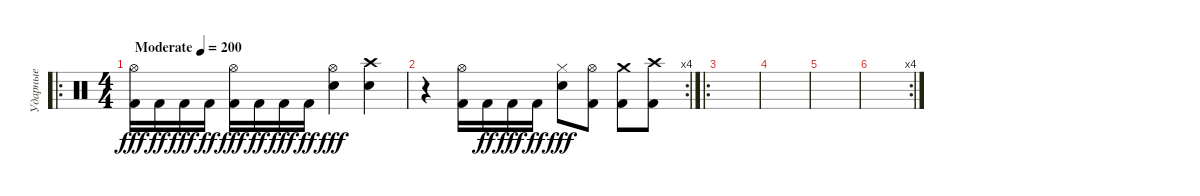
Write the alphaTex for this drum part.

\track ("Ударные" "Ударные") {instrument percussion}
\staff {score}
\articulation defaults
\ro
\ts (4 4)
\tempo (200 "Moderate")
\clef neutral
\ks c
("Hi-Hat (open)" "Kick (hit) 2").16{dy fff} "Kick (hit) 2".16{dy ff} "Kick (hit) 2".16{dy fff} "Kick (hit) 2".16{dy ff} ("Hi-Hat (open)" "Kick (hit) 2").16{dy fff} "Kick (hit) 2".16{dy ff} "Kick (hit) 2".16{dy fff} "Kick (hit) 2".16{dy ff} ("Hi-Hat (open)" "Electric Snare (hit)").4{dy fff} ("Crash high (hit)" "Electric Snare (hit)").4 |
\rc 4
r.4 ("Hi-Hat (open)" "Kick (hit) 2").16 "Kick (hit) 2".16{dy ff} "Kick (hit) 2".16{dy fff} "Kick (hit) 2".16{dy ff} ("Hi-Hat (closed)" "Electric Snare (hit)").8{dy fff} ("Hi-Hat (open)" "Kick (hit) 2").8 ("Crash medium (hit)" "Kick (hit) 2").8 ("Crash high (hit)" "Kick (hit) 2").8 |
\ro
|
|
|
\rc 4
